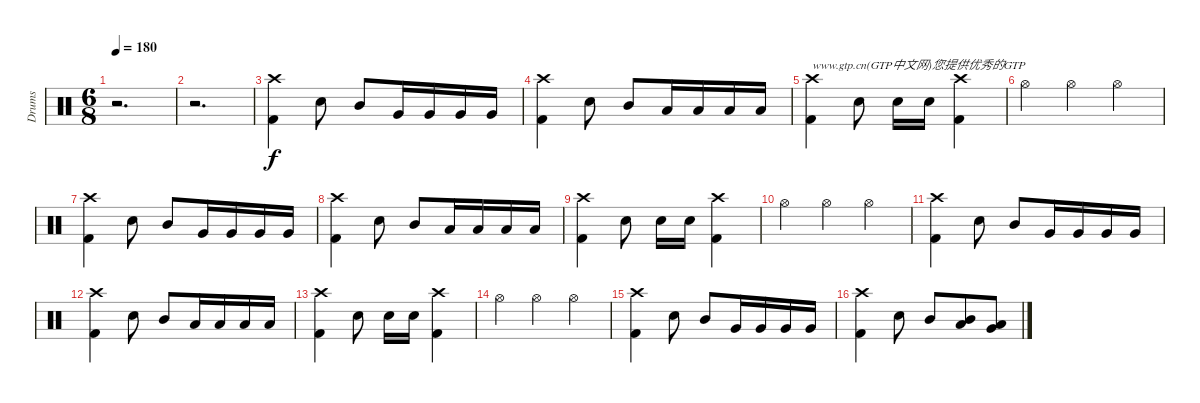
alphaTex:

\track ("Drums" "Drums") {instrument percussion}
\staff {score}
\articulation defaults
\ts (6 8)
\tempo 180
\clef neutral
\ks c
r.2{d dy f} |
r.2{d} |
("Crash high (hit)" "Kick (hit) 2").4 "Snare (hit) 2".8 "Mid Tom (hit)".8 "Very Low Tom (hit)".16 "Very Low Tom (hit)".16 "Very Low Tom (hit)".16 "Very Low Tom (hit)".16 |
("Crash high (hit)" "Kick (hit) 2").4 "Snare (hit) 2".8 "Mid Tom (hit)".8 "Low Tom (hit)".16 "Low Tom (hit)".16 "Low Tom (hit)".16 "Low Tom (hit)".16 |
("Crash high (hit)" "Kick (hit) 2").4{txt "www.gtp.cn(GTP中文网)您提供优秀的GTP"} "Snare (hit) 2".8 "Snare (hit) 2".16 "Snare (hit) 2".16 ("Crash high (hit)" "Kick (hit) 2").4 |
"Hi-Hat (open)".4 "Hi-Hat (open)".4 "Hi-Hat (open)".4 |
("Crash high (hit)" "Kick (hit) 2").4 "Snare (hit) 2".8 "Mid Tom (hit)".8 "Very Low Tom (hit)".16 "Very Low Tom (hit)".16 "Very Low Tom (hit)".16 "Very Low Tom (hit)".16 |
("Crash high (hit)" "Kick (hit) 2").4 "Snare (hit) 2".8 "Mid Tom (hit)".8 "Low Tom (hit)".16 "Low Tom (hit)".16 "Low Tom (hit)".16 "Low Tom (hit)".16 |
("Crash high (hit)" "Kick (hit) 2").4 "Snare (hit) 2".8 "Snare (hit) 2".16 "Snare (hit) 2".16 ("Crash high (hit)" "Kick (hit) 2").4 |
"Hi-Hat (open)".4 "Hi-Hat (open)".4 "Hi-Hat (open)".4 |
("Crash high (hit)" "Kick (hit) 2").4 "Snare (hit) 2".8 "Mid Tom (hit)".8 "Very Low Tom (hit)".16 "Very Low Tom (hit)".16 "Very Low Tom (hit)".16 "Very Low Tom (hit)".16 |
("Crash high (hit)" "Kick (hit) 2").4 "Snare (hit) 2".8 "Mid Tom (hit)".8 "Low Tom (hit)".16 "Low Tom (hit)".16 "Low Tom (hit)".16 "Low Tom (hit)".16 |
("Crash high (hit)" "Kick (hit) 2").4 "Snare (hit) 2".8 "Snare (hit) 2".16 "Snare (hit) 2".16 ("Crash high (hit)" "Kick (hit) 2").4 |
"Hi-Hat (open)".4 "Hi-Hat (open)".4 "Hi-Hat (open)".4 |
("Crash high (hit)" "Kick (hit) 2").4 "Snare (hit) 2".8 "Mid Tom (hit)".8 "Very Low Tom (hit)".16 "Very Low Tom (hit)".16 "Very Low Tom (hit)".16 "Very Low Tom (hit)".16 |
("Crash high (hit)" "Kick (hit) 2").4 "Snare (hit) 2".8 "Mid Tom (hit)".8 ("Mid Tom (hit)" "Low Tom (hit)").8 ("Low Tom (hit)" "Very Low Tom (hit)").8
